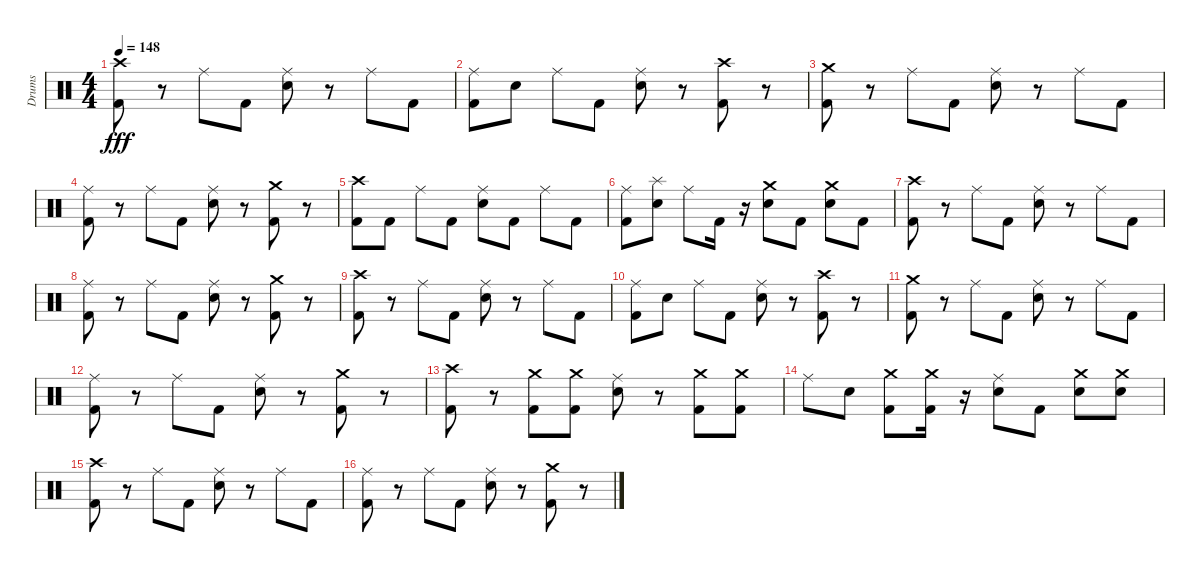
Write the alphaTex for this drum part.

\track ("Drums" "Drums") {instrument percussion}
\staff {score}
\articulation defaults
\ts (4 4)
\tempo 148
\clef neutral
\ks c
("Crash high (hit)" "Kick (hit) 2").8{dy fff} r.8 "Ride (middle)".8 "Kick (hit) 2".8 ("Ride (middle)" "Electric Snare (hit)").8 r.8 "Ride (middle)".8 "Kick (hit) 2".8 |
("Ride (middle)" "Kick (hit) 2").8 "Snare (hit) 2".8 "Ride (middle)".8 "Kick (hit) 2".8 ("Ride (middle)" "Electric Snare (hit)").8 r.8 ("Crash high (hit)" "Kick (hit) 2").8 r.8 |
("Crash medium (hit)" "Kick (hit) 2").8 r.8 "Ride (middle)".8 "Kick (hit) 2".8 ("Ride (middle)" "Electric Snare (hit)").8 r.8 "Ride (middle)".8 "Kick (hit) 2".8 |
("Ride (middle)" "Kick (hit) 2").8 r.8 "Ride (middle)".8 "Kick (hit) 2".8 ("Ride (middle)" "Electric Snare (hit)").8 r.8 ("Crash medium (hit)" "Kick (hit) 2").8 r.8 |
("Crash high (hit)" "Kick (hit) 2").8 "Kick (hit) 2".8 "Ride (middle)".8 "Kick (hit) 2".8 ("Ride (middle)" "Electric Snare (hit)").8 "Kick (hit) 2".8 "Ride (middle)".8 "Kick (hit) 2".8 |
("Ride (middle)" "Kick (hit) 2").8 ("Splash (hit)" "Electric Snare (hit)").8 "Ride (middle)".8 "Kick (hit) 2".16 r.16 ("Crash medium (hit)" "Electric Snare (hit)").8 "Kick (hit) 2".8 ("Crash medium (hit)" "Electric Snare (hit)").8 "Kick (hit) 2".8 |
("Crash high (hit)" "Kick (hit) 2").8 r.8 "Ride (middle)".8 "Kick (hit) 2".8 ("Ride (middle)" "Electric Snare (hit)").8 r.8 "Ride (middle)".8 "Kick (hit) 2".8 |
("Ride (middle)" "Kick (hit) 2").8 r.8 "Ride (middle)".8 "Kick (hit) 2".8 ("Ride (middle)" "Electric Snare (hit)").8 r.8 ("Crash medium (hit)" "Kick (hit) 2").8 r.8 |
("Crash high (hit)" "Kick (hit) 2").8 r.8 "Ride (middle)".8 "Kick (hit) 2".8 ("Ride (middle)" "Electric Snare (hit)").8 r.8 "Ride (middle)".8 "Kick (hit) 2".8 |
("Ride (middle)" "Kick (hit) 2").8 "Snare (hit) 2".8 "Ride (middle)".8 "Kick (hit) 2".8 ("Ride (middle)" "Electric Snare (hit)").8 r.8 ("Crash high (hit)" "Kick (hit) 2").8 r.8 |
("Crash medium (hit)" "Kick (hit) 2").8 r.8 "Ride (middle)".8 "Kick (hit) 2".8 ("Ride (middle)" "Electric Snare (hit)").8 r.8 "Ride (middle)".8 "Kick (hit) 2".8 |
("Ride (middle)" "Kick (hit) 2").8 r.8 "Ride (middle)".8 "Kick (hit) 2".8 ("Ride (middle)" "Electric Snare (hit)").8 r.8 ("Crash medium (hit)" "Kick (hit) 2").8 r.8 |
("Crash high (hit)" "Kick (hit) 2").8 r.8 ("Crash medium (hit)" "Kick (hit) 2").8 ("Crash medium (hit)" "Kick (hit) 2").8 ("Ride (middle)" "Electric Snare (hit)").8 r.8 ("Crash medium (hit)" "Kick (hit) 2").8 ("Crash medium (hit)" "Kick (hit) 2").8 |
"Ride (middle)".8 "Electric Snare (hit)".8 ("Crash medium (hit)" "Kick (hit) 2").8 ("Crash medium (hit)" "Kick (hit) 2").16 r.16 ("Ride (middle)" "Electric Snare (hit)").8 "Kick (hit) 2".8 ("Crash medium (hit)" "Electric Snare (hit)").8 ("Crash medium (hit)" "Electric Snare (hit)").8 |
("Crash high (hit)" "Kick (hit) 2").8 r.8 "Ride (middle)".8 "Kick (hit) 2".8 ("Ride (middle)" "Electric Snare (hit)").8 r.8 "Ride (middle)".8 "Kick (hit) 2".8 |
("Ride (middle)" "Kick (hit) 2").8 r.8 "Ride (middle)".8 "Kick (hit) 2".8 ("Ride (middle)" "Electric Snare (hit)").8 r.8 ("Crash medium (hit)" "Kick (hit) 2").8 r.8
